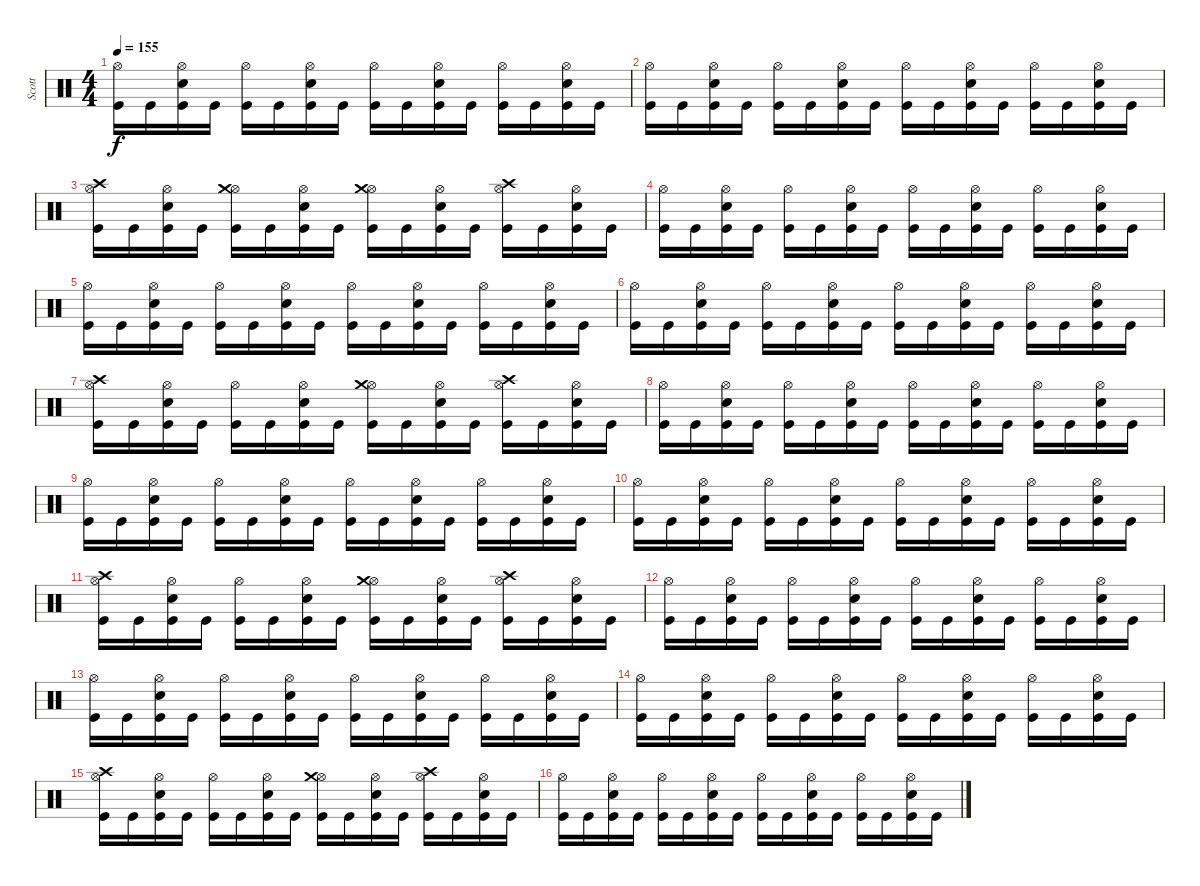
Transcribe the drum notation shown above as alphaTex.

\track ("Scott" "Scott") {instrument percussion}
\staff {score}
\articulation defaults
\ts (4 4)
\tempo 155
\clef neutral
\ks c
("Hi-Hat (open)" "Kick (hit)").16{dy f} "Kick (hit)".16 ("Hi-Hat (open)" "Snare (hit) 2" "Kick (hit)").16 "Kick (hit)".16 ("Hi-Hat (open)" "Kick (hit)").16 "Kick (hit)".16 ("Hi-Hat (open)" "Snare (hit) 2" "Kick (hit)").16 "Kick (hit)".16 ("Hi-Hat (open)" "Kick (hit)").16 "Kick (hit)".16 ("Hi-Hat (open)" "Snare (hit) 2" "Kick (hit)").16 "Kick (hit)".16 ("Hi-Hat (open)" "Kick (hit)").16 "Kick (hit)".16 ("Hi-Hat (open)" "Snare (hit) 2" "Kick (hit)").16 "Kick (hit)".16 |
("Hi-Hat (open)" "Kick (hit)").16 "Kick (hit)".16 ("Hi-Hat (open)" "Snare (hit) 2" "Kick (hit)").16 "Kick (hit)".16 ("Hi-Hat (open)" "Kick (hit)").16 "Kick (hit)".16 ("Hi-Hat (open)" "Snare (hit) 2" "Kick (hit)").16 "Kick (hit)".16 ("Hi-Hat (open)" "Kick (hit)").16 "Kick (hit)".16 ("Hi-Hat (open)" "Snare (hit) 2" "Kick (hit)").16 "Kick (hit)".16 ("Hi-Hat (open)" "Kick (hit)").16 "Kick (hit)".16 ("Hi-Hat (open)" "Snare (hit) 2" "Kick (hit)").16 "Kick (hit)".16 |
("Hi-Hat (open)" "Crash high (hit)" "Kick (hit)").16 "Kick (hit)".16 ("Hi-Hat (open)" "Snare (hit) 2" "Kick (hit)").16 "Kick (hit)".16 ("Hi-Hat (open)" "Crash medium (hit)" "Kick (hit)").16 "Kick (hit)".16 ("Hi-Hat (open)" "Snare (hit) 2" "Kick (hit)").16 "Kick (hit)".16 ("Hi-Hat (open)" "Crash medium (hit)" "Kick (hit)").16 "Kick (hit)".16 ("Hi-Hat (open)" "Snare (hit) 2" "Kick (hit)").16 "Kick (hit)".16 ("Hi-Hat (open)" "Crash high (hit)" "Kick (hit)").16 "Kick (hit)".16 ("Hi-Hat (open)" "Snare (hit) 2" "Kick (hit)").16 "Kick (hit)".16 |
("Hi-Hat (open)" "Kick (hit)").16 "Kick (hit)".16 ("Hi-Hat (open)" "Snare (hit) 2" "Kick (hit)").16 "Kick (hit)".16 ("Hi-Hat (open)" "Kick (hit)").16 "Kick (hit)".16 ("Hi-Hat (open)" "Snare (hit) 2" "Kick (hit)").16 "Kick (hit)".16 ("Hi-Hat (open)" "Kick (hit)").16 "Kick (hit)".16 ("Hi-Hat (open)" "Snare (hit) 2" "Kick (hit)").16 "Kick (hit)".16 ("Hi-Hat (open)" "Kick (hit)").16 "Kick (hit)".16 ("Hi-Hat (open)" "Snare (hit) 2" "Kick (hit)").16 "Kick (hit)".16 |
("Hi-Hat (open)" "Kick (hit)").16 "Kick (hit)".16 ("Hi-Hat (open)" "Snare (hit) 2" "Kick (hit)").16 "Kick (hit)".16 ("Hi-Hat (open)" "Kick (hit)").16 "Kick (hit)".16 ("Hi-Hat (open)" "Snare (hit) 2" "Kick (hit)").16 "Kick (hit)".16 ("Hi-Hat (open)" "Kick (hit)").16 "Kick (hit)".16 ("Hi-Hat (open)" "Snare (hit) 2" "Kick (hit)").16 "Kick (hit)".16 ("Hi-Hat (open)" "Kick (hit)").16 "Kick (hit)".16 ("Hi-Hat (open)" "Snare (hit) 2" "Kick (hit)").16 "Kick (hit)".16 |
("Hi-Hat (open)" "Kick (hit)").16 "Kick (hit)".16 ("Hi-Hat (open)" "Snare (hit) 2" "Kick (hit)").16 "Kick (hit)".16 ("Hi-Hat (open)" "Kick (hit)").16 "Kick (hit)".16 ("Hi-Hat (open)" "Snare (hit) 2" "Kick (hit)").16 "Kick (hit)".16 ("Hi-Hat (open)" "Kick (hit)").16 "Kick (hit)".16 ("Hi-Hat (open)" "Snare (hit) 2" "Kick (hit)").16 "Kick (hit)".16 ("Hi-Hat (open)" "Kick (hit)").16 "Kick (hit)".16 ("Hi-Hat (open)" "Snare (hit) 2" "Kick (hit)").16 "Kick (hit)".16 |
("Hi-Hat (open)" "Crash high (hit)" "Kick (hit)").16 "Kick (hit)".16 ("Hi-Hat (open)" "Snare (hit) 2" "Kick (hit)").16 "Kick (hit)".16 ("Hi-Hat (open)" "Kick (hit)").16 "Kick (hit)".16 ("Hi-Hat (open)" "Snare (hit) 2" "Kick (hit)").16 "Kick (hit)".16 ("Hi-Hat (open)" "Crash medium (hit)" "Kick (hit)").16 "Kick (hit)".16 ("Hi-Hat (open)" "Snare (hit) 2" "Kick (hit)").16 "Kick (hit)".16 ("Hi-Hat (open)" "Crash high (hit)" "Kick (hit)").16 "Kick (hit)".16 ("Hi-Hat (open)" "Snare (hit) 2" "Kick (hit)").16 "Kick (hit)".16 |
("Hi-Hat (open)" "Kick (hit)").16 "Kick (hit)".16 ("Hi-Hat (open)" "Snare (hit) 2" "Kick (hit)").16 "Kick (hit)".16 ("Hi-Hat (open)" "Kick (hit)").16 "Kick (hit)".16 ("Hi-Hat (open)" "Snare (hit) 2" "Kick (hit)").16 "Kick (hit)".16 ("Hi-Hat (open)" "Kick (hit)").16 "Kick (hit)".16 ("Hi-Hat (open)" "Snare (hit) 2" "Kick (hit)").16 "Kick (hit)".16 ("Hi-Hat (open)" "Kick (hit)").16 "Kick (hit)".16 ("Hi-Hat (open)" "Snare (hit) 2" "Kick (hit)").16 "Kick (hit)".16 |
("Hi-Hat (open)" "Kick (hit)").16 "Kick (hit)".16 ("Hi-Hat (open)" "Snare (hit) 2" "Kick (hit)").16 "Kick (hit)".16 ("Hi-Hat (open)" "Kick (hit)").16 "Kick (hit)".16 ("Hi-Hat (open)" "Snare (hit) 2" "Kick (hit)").16 "Kick (hit)".16 ("Hi-Hat (open)" "Kick (hit)").16 "Kick (hit)".16 ("Hi-Hat (open)" "Snare (hit) 2" "Kick (hit)").16 "Kick (hit)".16 ("Hi-Hat (open)" "Kick (hit)").16 "Kick (hit)".16 ("Hi-Hat (open)" "Snare (hit) 2" "Kick (hit)").16 "Kick (hit)".16 |
("Hi-Hat (open)" "Kick (hit)").16 "Kick (hit)".16 ("Hi-Hat (open)" "Snare (hit) 2" "Kick (hit)").16 "Kick (hit)".16 ("Hi-Hat (open)" "Kick (hit)").16 "Kick (hit)".16 ("Hi-Hat (open)" "Snare (hit) 2" "Kick (hit)").16 "Kick (hit)".16 ("Hi-Hat (open)" "Kick (hit)").16 "Kick (hit)".16 ("Hi-Hat (open)" "Snare (hit) 2" "Kick (hit)").16 "Kick (hit)".16 ("Hi-Hat (open)" "Kick (hit)").16 "Kick (hit)".16 ("Hi-Hat (open)" "Snare (hit) 2" "Kick (hit)").16 "Kick (hit)".16 |
("Hi-Hat (open)" "Crash high (hit)" "Kick (hit)").16 "Kick (hit)".16 ("Hi-Hat (open)" "Snare (hit) 2" "Kick (hit)").16 "Kick (hit)".16 ("Hi-Hat (open)" "Kick (hit)").16 "Kick (hit)".16 ("Hi-Hat (open)" "Snare (hit) 2" "Kick (hit)").16 "Kick (hit)".16 ("Hi-Hat (open)" "Crash medium (hit)" "Kick (hit)").16 "Kick (hit)".16 ("Hi-Hat (open)" "Snare (hit) 2" "Kick (hit)").16 "Kick (hit)".16 ("Hi-Hat (open)" "Crash high (hit)" "Kick (hit)").16 "Kick (hit)".16 ("Hi-Hat (open)" "Snare (hit) 2" "Kick (hit)").16 "Kick (hit)".16 |
("Hi-Hat (open)" "Kick (hit)").16 "Kick (hit)".16 ("Hi-Hat (open)" "Snare (hit) 2" "Kick (hit)").16 "Kick (hit)".16 ("Hi-Hat (open)" "Kick (hit)").16 "Kick (hit)".16 ("Hi-Hat (open)" "Snare (hit) 2" "Kick (hit)").16 "Kick (hit)".16 ("Hi-Hat (open)" "Kick (hit)").16 "Kick (hit)".16 ("Hi-Hat (open)" "Snare (hit) 2" "Kick (hit)").16 "Kick (hit)".16 ("Hi-Hat (open)" "Kick (hit)").16 "Kick (hit)".16 ("Hi-Hat (open)" "Snare (hit) 2" "Kick (hit)").16 "Kick (hit)".16 |
("Hi-Hat (open)" "Kick (hit)").16 "Kick (hit)".16 ("Hi-Hat (open)" "Snare (hit) 2" "Kick (hit)").16 "Kick (hit)".16 ("Hi-Hat (open)" "Kick (hit)").16 "Kick (hit)".16 ("Hi-Hat (open)" "Snare (hit) 2" "Kick (hit)").16 "Kick (hit)".16 ("Hi-Hat (open)" "Kick (hit)").16 "Kick (hit)".16 ("Hi-Hat (open)" "Snare (hit) 2" "Kick (hit)").16 "Kick (hit)".16 ("Hi-Hat (open)" "Kick (hit)").16 "Kick (hit)".16 ("Hi-Hat (open)" "Snare (hit) 2" "Kick (hit)").16 "Kick (hit)".16 |
("Hi-Hat (open)" "Kick (hit)").16 "Kick (hit)".16 ("Hi-Hat (open)" "Snare (hit) 2" "Kick (hit)").16 "Kick (hit)".16 ("Hi-Hat (open)" "Kick (hit)").16 "Kick (hit)".16 ("Hi-Hat (open)" "Snare (hit) 2" "Kick (hit)").16 "Kick (hit)".16 ("Hi-Hat (open)" "Kick (hit)").16 "Kick (hit)".16 ("Hi-Hat (open)" "Snare (hit) 2" "Kick (hit)").16 "Kick (hit)".16 ("Hi-Hat (open)" "Kick (hit)").16 "Kick (hit)".16 ("Hi-Hat (open)" "Snare (hit) 2" "Kick (hit)").16 "Kick (hit)".16 |
("Hi-Hat (open)" "Crash high (hit)" "Kick (hit)").16 "Kick (hit)".16 ("Hi-Hat (open)" "Snare (hit) 2" "Kick (hit)").16 "Kick (hit)".16 ("Hi-Hat (open)" "Kick (hit)").16 "Kick (hit)".16 ("Hi-Hat (open)" "Snare (hit) 2" "Kick (hit)").16 "Kick (hit)".16 ("Hi-Hat (open)" "Crash medium (hit)" "Kick (hit)").16 "Kick (hit)".16 ("Hi-Hat (open)" "Snare (hit) 2" "Kick (hit)").16 "Kick (hit)".16 ("Hi-Hat (open)" "Crash high (hit)" "Kick (hit)").16 "Kick (hit)".16 ("Hi-Hat (open)" "Snare (hit) 2" "Kick (hit)").16 "Kick (hit)".16 |
("Hi-Hat (open)" "Kick (hit)").16 "Kick (hit)".16 ("Hi-Hat (open)" "Snare (hit) 2" "Kick (hit)").16 "Kick (hit)".16 ("Hi-Hat (open)" "Kick (hit)").16 "Kick (hit)".16 ("Hi-Hat (open)" "Snare (hit) 2" "Kick (hit)").16 "Kick (hit)".16 ("Hi-Hat (open)" "Kick (hit)").16 "Kick (hit)".16 ("Hi-Hat (open)" "Snare (hit) 2" "Kick (hit)").16 "Kick (hit)".16 ("Hi-Hat (open)" "Kick (hit)").16 "Kick (hit)".16 ("Hi-Hat (open)" "Snare (hit) 2" "Kick (hit)").16 "Kick (hit)".16
